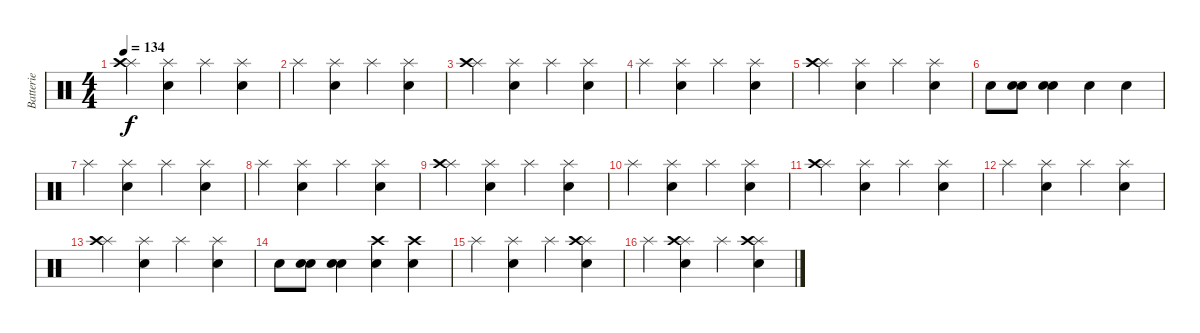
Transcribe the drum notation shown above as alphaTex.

\track ("Batterie" "Batterie") {instrument percussion}
\staff {score}
\articulation defaults
\ts (4 4)
\tempo 134
\clef neutral
\ks c
("Splash (hit)" "Crash high (hit)").4{dy f} ("Splash (hit)" "Electric Snare (hit)").4 "Splash (hit)".4 ("Splash (hit)" "Electric Snare (hit)").4 |
"Splash (hit)".4 ("Splash (hit)" "Electric Snare (hit)").4 "Splash (hit)".4 ("Splash (hit)" "Electric Snare (hit)").4 |
("Splash (hit)" "Crash high (hit)").4 ("Splash (hit)" "Electric Snare (hit)").4 "Splash (hit)".4 ("Splash (hit)" "Electric Snare (hit)").4 |
"Splash (hit)".4 ("Splash (hit)" "Electric Snare (hit)").4 "Splash (hit)".4 ("Splash (hit)" "Electric Snare (hit)").4 |
("Splash (hit)" "Crash high (hit)").4 ("Splash (hit)" "Electric Snare (hit)").4 "Splash (hit)".4 ("Splash (hit)" "Electric Snare (hit)").4 |
"Electric Snare (hit)".8 ("Electric Snare (hit)" "Electric Snare (hit)").8 ("Electric Snare (hit)" "Electric Snare (hit)").4 "Electric Snare (hit)".4 "Electric Snare (hit)".4 |
"Splash (hit)".4 ("Splash (hit)" "Electric Snare (hit)").4 "Splash (hit)".4 ("Splash (hit)" "Electric Snare (hit)").4 |
"Splash (hit)".4 ("Splash (hit)" "Electric Snare (hit)").4 "Splash (hit)".4 ("Splash (hit)" "Electric Snare (hit)").4 |
("Splash (hit)" "Crash high (hit)").4 ("Splash (hit)" "Electric Snare (hit)").4 "Splash (hit)".4 ("Splash (hit)" "Electric Snare (hit)").4 |
"Splash (hit)".4 ("Splash (hit)" "Electric Snare (hit)").4 "Splash (hit)".4 ("Splash (hit)" "Electric Snare (hit)").4 |
("Splash (hit)" "Crash high (hit)").4 ("Splash (hit)" "Electric Snare (hit)").4 "Splash (hit)".4 ("Splash (hit)" "Electric Snare (hit)").4 |
"Splash (hit)".4 ("Splash (hit)" "Electric Snare (hit)").4 "Splash (hit)".4 ("Splash (hit)" "Electric Snare (hit)").4 |
("Splash (hit)" "Crash high (hit)").4 ("Splash (hit)" "Electric Snare (hit)").4 "Splash (hit)".4 ("Splash (hit)" "Electric Snare (hit)").4 |
"Electric Snare (hit)".8 ("Electric Snare (hit)" "Electric Snare (hit)").8 ("Electric Snare (hit)" "Electric Snare (hit)").4 ("Electric Snare (hit)" "Crash high (hit)").4 ("Electric Snare (hit)" "Crash high (hit)").4 |
"Splash (hit)".4 ("Splash (hit)" "Electric Snare (hit)").4 "Splash (hit)".4 ("Splash (hit)" "Electric Snare (hit)" "Crash high (hit)").4 |
"Splash (hit)".4 ("Splash (hit)" "Electric Snare (hit)" "Crash high (hit)").4 "Splash (hit)".4 ("Splash (hit)" "Electric Snare (hit)" "Crash high (hit)").4
